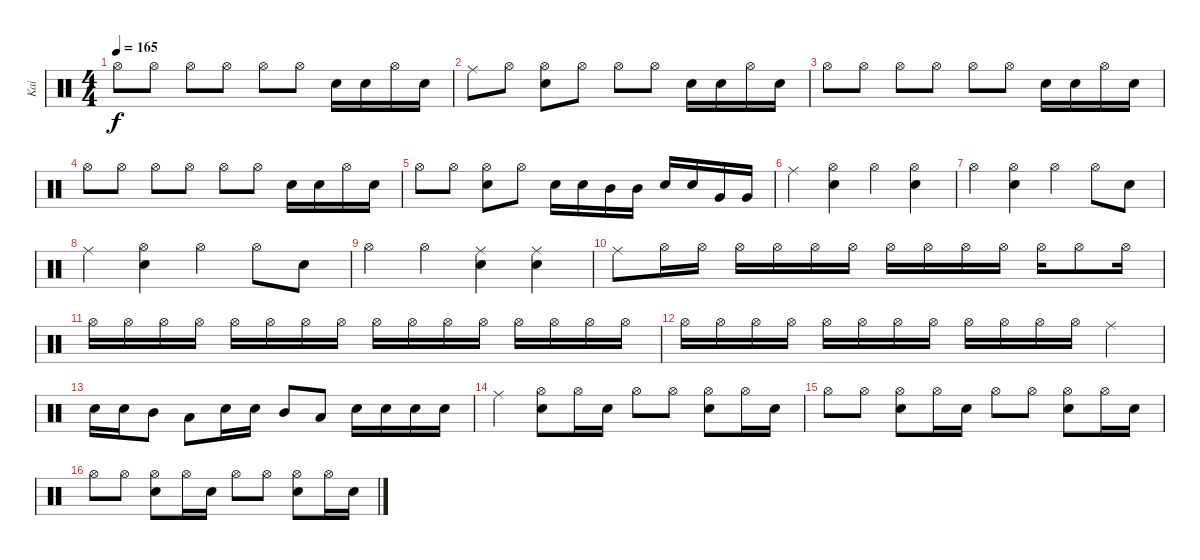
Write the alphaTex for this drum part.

\track ("Kai" "Kai") {instrument percussion}
\staff {score}
\articulation defaults
\ts (4 4)
\tempo 165
\clef neutral
\ks c "Hi-Hat (open)".8{dy f} "Hi-Hat (open)".8 "Hi-Hat (open)".8 "Hi-Hat (open)".8 "Hi-Hat (open)".8 "Hi-Hat (open)".8 "Snare (hit) 2".16 "Snare (hit) 2".16 "Hi-Hat (open)".16 "Snare (hit) 2".16
|
"Ride (middle)".8 "Hi-Hat (open)".8 ("Hi-Hat (open)" "Snare (hit) 2").8 "Hi-Hat (open)".8 "Hi-Hat (open)".8 "Hi-Hat (open)".8 "Snare (hit) 2".16 "Snare (hit) 2".16 "Hi-Hat (open)".16 "Snare (hit) 2".16 |
"Hi-Hat (open)".8 "Hi-Hat (open)".8 "Hi-Hat (open)".8 "Hi-Hat (open)".8 "Hi-Hat (open)".8 "Hi-Hat (open)".8 "Snare (hit) 2".16 "Snare (hit) 2".16 "Hi-Hat (open)".16 "Snare (hit) 2".16 |
"Hi-Hat (open)".8 "Hi-Hat (open)".8 "Hi-Hat (open)".8 "Hi-Hat (open)".8 "Hi-Hat (open)".8 "Hi-Hat (open)".8 "Snare (hit) 2".16 "Snare (hit) 2".16 "Hi-Hat (open)".16 "Snare (hit) 2".16 |
"Hi-Hat (open)".8 "Hi-Hat (open)".8 ("Hi-Hat (open)" "Snare (hit) 2").8 "Hi-Hat (open)".8 "Snare (hit) 2".16 "Snare (hit) 2".16 "Mid Tom (hit)".16 "Mid Tom (hit)".16 "Snare (hit) 2".16 "Snare (hit) 2".16 "Very Low Tom (hit)".16 "Very Low Tom (hit)".16 |
"Ride (middle)".4 ("Hi-Hat (open)" "Snare (hit) 2").4 "Hi-Hat (open)".4 ("Hi-Hat (open)" "Snare (hit) 2").4 |
"Hi-Hat (open)".4 ("Hi-Hat (open)" "Snare (hit) 2").4 "Hi-Hat (open)".4 "Hi-Hat (open)".8 "Snare (hit) 2".8 |
"Ride (middle)".4 ("Hi-Hat (open)" "Snare (hit) 2").4 "Hi-Hat (open)".4 "Hi-Hat (open)".8 "Snare (hit) 2".8 |
"Hi-Hat (open)".4 "Hi-Hat (open)".4 ("Ride (middle)" "Snare (hit) 2").4 ("Ride (middle)" "Snare (hit) 2").4 |
"Ride (middle)".8 "Hi-Hat (open)".16 "Hi-Hat (open)".16 "Hi-Hat (open)".16 "Hi-Hat (open)".16 "Hi-Hat (open)".16 "Hi-Hat (open)".16 "Hi-Hat (open)".16 "Hi-Hat (open)".16 "Hi-Hat (open)".16 "Hi-Hat (open)".16 "Hi-Hat (open)".16 "Hi-Hat (open)".8 "Hi-Hat (open)".16 |
"Hi-Hat (open)".16 "Hi-Hat (open)".16 "Hi-Hat (open)".16 "Hi-Hat (open)".16 "Hi-Hat (open)".16 "Hi-Hat (open)".16 "Hi-Hat (open)".16 "Hi-Hat (open)".16 "Hi-Hat (open)".16 "Hi-Hat (open)".16 "Hi-Hat (open)".16 "Hi-Hat (open)".16 "Hi-Hat (open)".16 "Hi-Hat (open)".16 "Hi-Hat (open)".16 "Hi-Hat (open)".16 |
"Hi-Hat (open)".16 "Hi-Hat (open)".16 "Hi-Hat (open)".16 "Hi-Hat (open)".16 "Hi-Hat (open)".16 "Hi-Hat (open)".16 "Hi-Hat (open)".16 "Hi-Hat (open)".16 "Hi-Hat (open)".16 "Hi-Hat (open)".16 "Hi-Hat (open)".16 "Hi-Hat (open)".16 "Ride (middle)".4 |
"Snare (hit) 2".16 "Snare (hit) 2".16 "Mid Tom (hit)".8 "Low Tom (hit)".8 "Snare (hit) 2".16 "Snare (hit) 2".16 "Mid Tom (hit)".8 "Low Tom (hit)".8 "Snare (hit) 2".16 "Snare (hit) 2".16 "Snare (hit) 2".16 "Snare (hit) 2".16 |
"Ride (middle)".4 ("Hi-Hat (open)" "Snare (hit) 2").8 "Hi-Hat (open)".16 "Snare (hit) 2".16 "Hi-Hat (open)".8 "Hi-Hat (open)".8 ("Hi-Hat (open)" "Snare (hit) 2").8 "Hi-Hat (open)".16 "Snare (hit) 2".16 |
"Hi-Hat (open)".8 "Hi-Hat (open)".8 ("Hi-Hat (open)" "Snare (hit) 2").8 "Hi-Hat (open)".16 "Snare (hit) 2".16 "Hi-Hat (open)".8 "Hi-Hat (open)".8 ("Hi-Hat (open)" "Snare (hit) 2").8 "Hi-Hat (open)".16 "Snare (hit) 2".16 |
"Hi-Hat (open)".8 "Hi-Hat (open)".8 ("Hi-Hat (open)" "Snare (hit) 2").8 "Hi-Hat (open)".16 "Snare (hit) 2".16 "Hi-Hat (open)".8 "Hi-Hat (open)".8 ("Hi-Hat (open)" "Snare (hit) 2").8 "Hi-Hat (open)".16 "Snare (hit) 2".16
